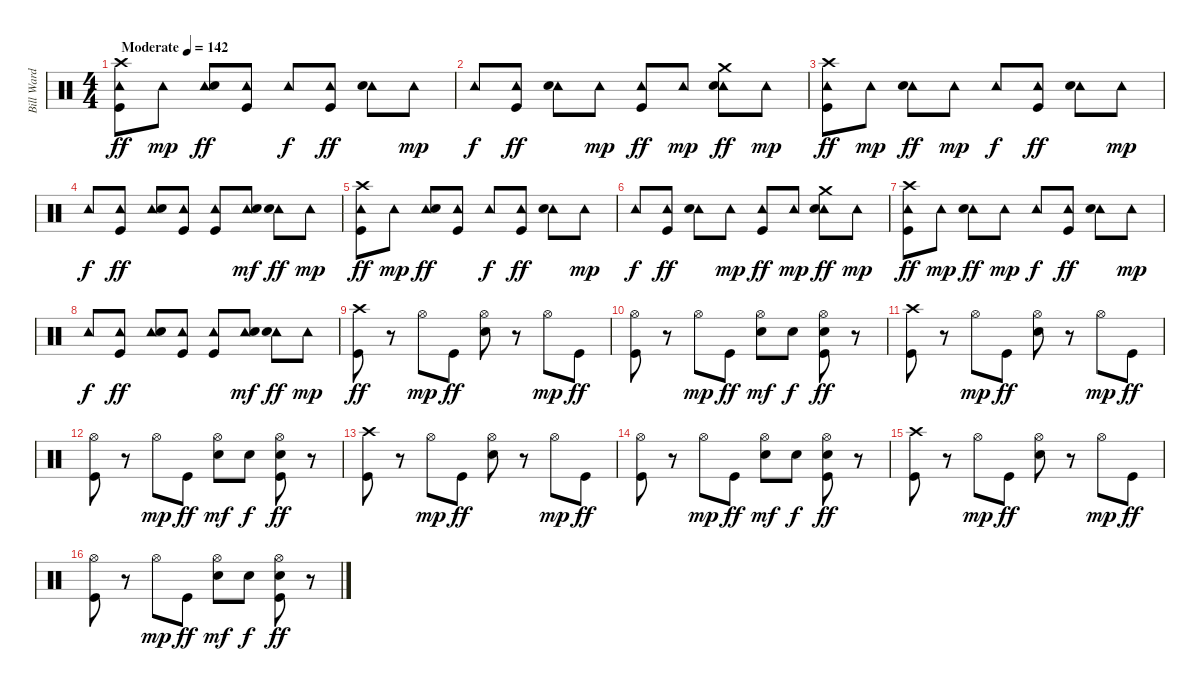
\track ("Bill Ward" "Bill Ward") {instrument percussion}
\staff {score}
\articulation defaults
\ts (4 4)
\tempo (142 "Moderate")
\clef neutral
\ks c
("Crash high (hit)" "Tambourine (hit)" "Kick (hit)").8{dy ff} "Tambourine (hit)".8{dy mp} ("Tambourine (hit)" "Snare (hit) 2").8{dy ff} ("Tambourine (hit)" "Kick (hit)").8 "Tambourine (hit)".8{dy f} ("Tambourine (hit)" "Kick (hit)").8{dy ff} ("Tambourine (hit)" "Snare (hit) 2").8 "Tambourine (hit)".8{dy mp} |
"Tambourine (hit)".8{dy f} ("Tambourine (hit)" "Kick (hit)").8{dy ff} ("Tambourine (hit)" "Snare (hit) 2").8 "Tambourine (hit)".8{dy mp} ("Tambourine (hit)" "Kick (hit)").8{dy ff} "Tambourine (hit)".8{dy mp} ("Crash medium (hit)" "Tambourine (hit)" "Snare (hit) 2").8{dy ff} "Tambourine (hit)".8{dy mp} |
("Crash high (hit)" "Tambourine (hit)" "Kick (hit)").8{dy ff} "Tambourine (hit)".8{dy mp} ("Tambourine (hit)" "Snare (hit) 2").8{dy ff} "Tambourine (hit)".8{dy mp} "Tambourine (hit)".8{dy f} ("Tambourine (hit)" "Kick (hit)").8{dy ff} ("Tambourine (hit)" "Snare (hit) 2").8 "Tambourine (hit)".8{dy mp} |
"Tambourine (hit)".8{dy f} ("Tambourine (hit)" "Kick (hit)").8{dy ff} ("Tambourine (hit)" "Snare (hit) 2").8 ("Tambourine (hit)" "Kick (hit)").8 ("Tambourine (hit)" "Kick (hit)").8 ("Tambourine (hit)" "Snare (hit) 2").8{dy mf} ("Tambourine (hit)" "Snare (hit) 2").8{dy ff} "Tambourine (hit)".8{dy mp} |
("Crash high (hit)" "Tambourine (hit)" "Kick (hit)").8{dy ff} "Tambourine (hit)".8{dy mp} ("Tambourine (hit)" "Snare (hit) 2").8{dy ff} ("Tambourine (hit)" "Kick (hit)").8 "Tambourine (hit)".8{dy f} ("Tambourine (hit)" "Kick (hit)").8{dy ff} ("Tambourine (hit)" "Snare (hit) 2").8 "Tambourine (hit)".8{dy mp} |
"Tambourine (hit)".8{dy f} ("Tambourine (hit)" "Kick (hit)").8{dy ff} ("Tambourine (hit)" "Snare (hit) 2").8 "Tambourine (hit)".8{dy mp} ("Tambourine (hit)" "Kick (hit)").8{dy ff} "Tambourine (hit)".8{dy mp} ("Crash medium (hit)" "Tambourine (hit)" "Snare (hit) 2").8{dy ff} "Tambourine (hit)".8{dy mp} |
("Crash high (hit)" "Tambourine (hit)" "Kick (hit)").8{dy ff} "Tambourine (hit)".8{dy mp} ("Tambourine (hit)" "Snare (hit) 2").8{dy ff} "Tambourine (hit)".8{dy mp} "Tambourine (hit)".8{dy f} ("Tambourine (hit)" "Kick (hit)").8{dy ff} ("Tambourine (hit)" "Snare (hit) 2").8 "Tambourine (hit)".8{dy mp} |
"Tambourine (hit)".8{dy f} ("Tambourine (hit)" "Kick (hit)").8{dy ff} ("Tambourine (hit)" "Snare (hit) 2").8 ("Tambourine (hit)" "Kick (hit)").8 ("Tambourine (hit)" "Kick (hit)").8 ("Tambourine (hit)" "Snare (hit) 2").8{dy mf} ("Tambourine (hit)" "Snare (hit) 2").8{dy ff} "Tambourine (hit)".8{dy mp} |
("Crash high (hit)" "Kick (hit)").8{dy ff} r.8 "Hi-Hat (open)".8{dy mp} "Kick (hit)".8{dy ff} ("Hi-Hat (open)" "Snare (hit) 2").8 r.8 "Hi-Hat (open)".8{dy mp} "Kick (hit)".8{dy ff} |
("Hi-Hat (open)" "Kick (hit)").8 r.8 "Hi-Hat (open)".8{dy mp} "Kick (hit)".8{dy ff} ("Hi-Hat (open)" "Snare (hit) 2").8{dy mf} "Snare (hit) 2".8{dy f} ("Hi-Hat (open)" "Snare (hit) 2" "Kick (hit)").8{dy ff} r.8 |
("Crash high (hit)" "Kick (hit)").8 r.8 "Hi-Hat (open)".8{dy mp} "Kick (hit)".8{dy ff} ("Hi-Hat (open)" "Snare (hit) 2").8 r.8 "Hi-Hat (open)".8{dy mp} "Kick (hit)".8{dy ff} |
("Hi-Hat (open)" "Kick (hit)").8 r.8 "Hi-Hat (open)".8{dy mp} "Kick (hit)".8{dy ff} ("Hi-Hat (open)" "Snare (hit) 2").8{dy mf} "Snare (hit) 2".8{dy f} ("Hi-Hat (open)" "Snare (hit) 2" "Kick (hit)").8{dy ff} r.8 |
("Crash high (hit)" "Kick (hit)").8 r.8 "Hi-Hat (open)".8{dy mp} "Kick (hit)".8{dy ff} ("Hi-Hat (open)" "Snare (hit) 2").8 r.8 "Hi-Hat (open)".8{dy mp} "Kick (hit)".8{dy ff} |
("Hi-Hat (open)" "Kick (hit)").8 r.8 "Hi-Hat (open)".8{dy mp} "Kick (hit)".8{dy ff} ("Hi-Hat (open)" "Snare (hit) 2").8{dy mf} "Snare (hit) 2".8{dy f} ("Hi-Hat (open)" "Snare (hit) 2" "Kick (hit)").8{dy ff} r.8 |
("Crash high (hit)" "Kick (hit)").8 r.8 "Hi-Hat (open)".8{dy mp} "Kick (hit)".8{dy ff} ("Hi-Hat (open)" "Snare (hit) 2").8 r.8 "Hi-Hat (open)".8{dy mp} "Kick (hit)".8{dy ff} |
("Hi-Hat (open)" "Kick (hit)").8 r.8 "Hi-Hat (open)".8{dy mp} "Kick (hit)".8{dy ff} ("Hi-Hat (open)" "Snare (hit) 2").8{dy mf} "Snare (hit) 2".8{dy f} ("Hi-Hat (open)" "Snare (hit) 2" "Kick (hit)").8{dy ff} r.8
